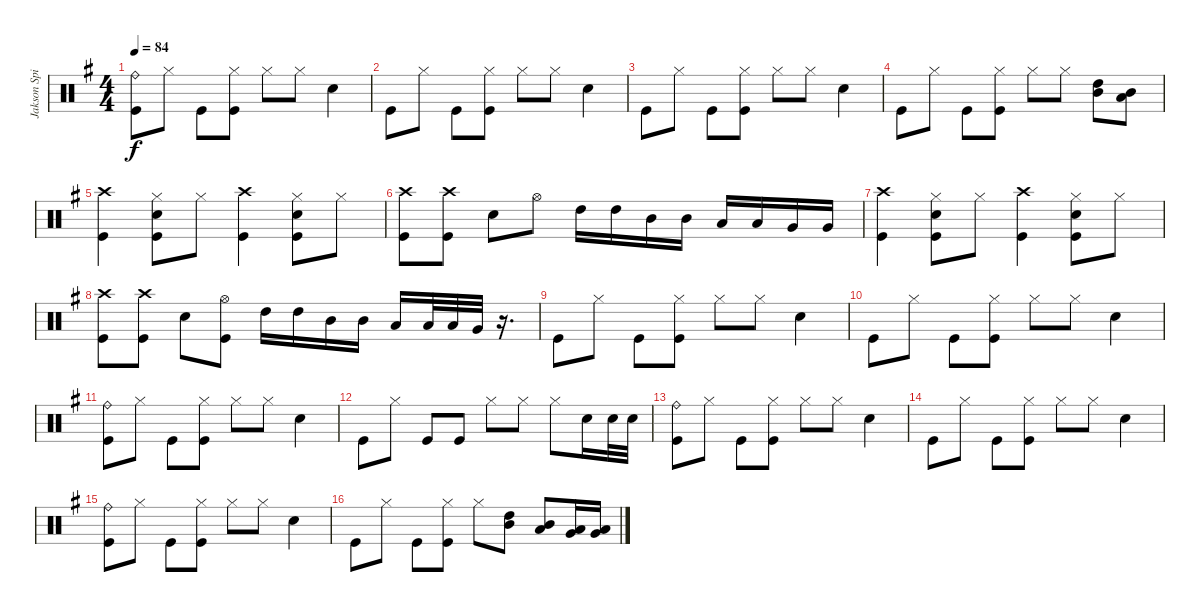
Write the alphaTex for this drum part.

\track ("Jakson Spires Drums" "Jakson Spi") {instrument percussion}
\staff {score}
\articulation defaults
\ts (4 4)
\tempo 84
\clef neutral
\ks g
("Ride (bell)" "Kick (hit)").8{dy f} "Hi-Hat (closed)".8 "Kick (hit)".8 ("Hi-Hat (closed)" "Kick (hit)").8 "Hi-Hat (closed)".8 "Hi-Hat (closed)".8 "Snare (hit) 2".4 |
"Kick (hit)".8 "Hi-Hat (closed)".8 "Kick (hit)".8 ("Hi-Hat (closed)" "Kick (hit)").8 "Hi-Hat (closed)".8 "Hi-Hat (closed)".8 "Snare (hit) 2".4 |
"Kick (hit)".8 "Hi-Hat (closed)".8 "Kick (hit)".8 ("Hi-Hat (closed)" "Kick (hit)").8 "Hi-Hat (closed)".8 "Hi-Hat (closed)".8 "Snare (hit) 2".4 |
"Kick (hit)".8 "Hi-Hat (closed)".8 "Kick (hit)".8 ("Hi-Hat (closed)" "Kick (hit)").8 "Hi-Hat (closed)".8 "Hi-Hat (closed)".8 ("High Tom (hit)" "Mid Tom (hit)").8 ("Mid Tom (hit)" "Low Tom (hit)").8 |
("Crash high (hit)" "Kick (hit)").4 ("Hi-Hat (closed)" "Snare (hit) 2" "Kick (hit)").8 "Hi-Hat (closed)".8 ("Crash high (hit)" "Kick (hit)").4 ("Hi-Hat (closed)" "Snare (hit) 2" "Kick (hit)").8 "Hi-Hat (closed)".8 |
("Crash high (hit)" "Kick (hit)").8 ("Crash high (hit)" "Kick (hit)").8 "Snare (hit) 2".8 "Hi-Hat (open)".8 "High Tom (hit)".16 "High Tom (hit)".16 "Mid Tom (hit)".16 "Mid Tom (hit)".16 "Low Tom (hit)".16 "Low Tom (hit)".16 "Very Low Tom (hit)".16 "Very Low Tom (hit)".16 |
("Crash high (hit)" "Kick (hit)").4 ("Hi-Hat (closed)" "Snare (hit) 2" "Kick (hit)").8 "Hi-Hat (closed)".8 ("Crash high (hit)" "Kick (hit)").4 ("Hi-Hat (closed)" "Snare (hit) 2" "Kick (hit)").8 "Hi-Hat (closed)".8 |
("Crash high (hit)" "Kick (hit)").8 ("Crash high (hit)" "Kick (hit)").8 "Snare (hit) 2".8 ("Hi-Hat (open)" "Kick (hit)").8 "High Tom (hit)".16 "High Tom (hit)".16 "Mid Tom (hit)".16 "Mid Tom (hit)".16 "Low Tom (hit)".16 "Low Tom (hit)".32 "Low Tom (hit)".32 "Very Low Tom (hit)".32 r.16{d} |
"Kick (hit)".8 "Hi-Hat (closed)".8 "Kick (hit)".8 ("Hi-Hat (closed)" "Kick (hit)").8 "Hi-Hat (closed)".8 "Hi-Hat (closed)".8 "Snare (hit) 2".4 |
"Kick (hit)".8 "Hi-Hat (closed)".8 "Kick (hit)".8 ("Hi-Hat (closed)" "Kick (hit)").8 "Hi-Hat (closed)".8 "Hi-Hat (closed)".8 "Snare (hit) 2".4 |
("Ride (bell)" "Kick (hit)").8 "Hi-Hat (closed)".8 "Kick (hit)".8 ("Hi-Hat (closed)" "Kick (hit)").8 "Hi-Hat (closed)".8 "Hi-Hat (closed)".8 "Snare (hit) 2".4 |
"Kick (hit)".8 "Hi-Hat (closed)".8 "Kick (hit)".8 "Kick (hit)".8 "Hi-Hat (closed)".8 "Hi-Hat (closed)".8 "Hi-Hat (closed)".8 "Snare (hit) 2".16 "Snare (hit) 2".32 "Snare (hit) 2".32 |
("Ride (bell)" "Kick (hit)").8 "Hi-Hat (closed)".8 "Kick (hit)".8 ("Hi-Hat (closed)" "Kick (hit)").8 "Hi-Hat (closed)".8 "Hi-Hat (closed)".8 "Snare (hit) 2".4 |
"Kick (hit)".8 "Hi-Hat (closed)".8 "Kick (hit)".8 ("Hi-Hat (closed)" "Kick (hit)").8 "Hi-Hat (closed)".8 "Hi-Hat (closed)".8 "Snare (hit) 2".4 |
("Ride (bell)" "Kick (hit)").8 "Hi-Hat (closed)".8 "Kick (hit)".8 ("Hi-Hat (closed)" "Kick (hit)").8 "Hi-Hat (closed)".8 "Hi-Hat (closed)".8 "Snare (hit) 2".4 |
"Kick (hit)".8 "Hi-Hat (closed)".8 "Kick (hit)".8 ("Hi-Hat (closed)" "Kick (hit)").8 "Hi-Hat (closed)".8 ("High Tom (hit)" "Mid Tom (hit)").8 ("Mid Tom (hit)" "Low Tom (hit)").8 ("Low Tom (hit)" "Very Low Tom (hit)").16 ("Low Tom (hit)" "Very Low Tom (hit)").16
